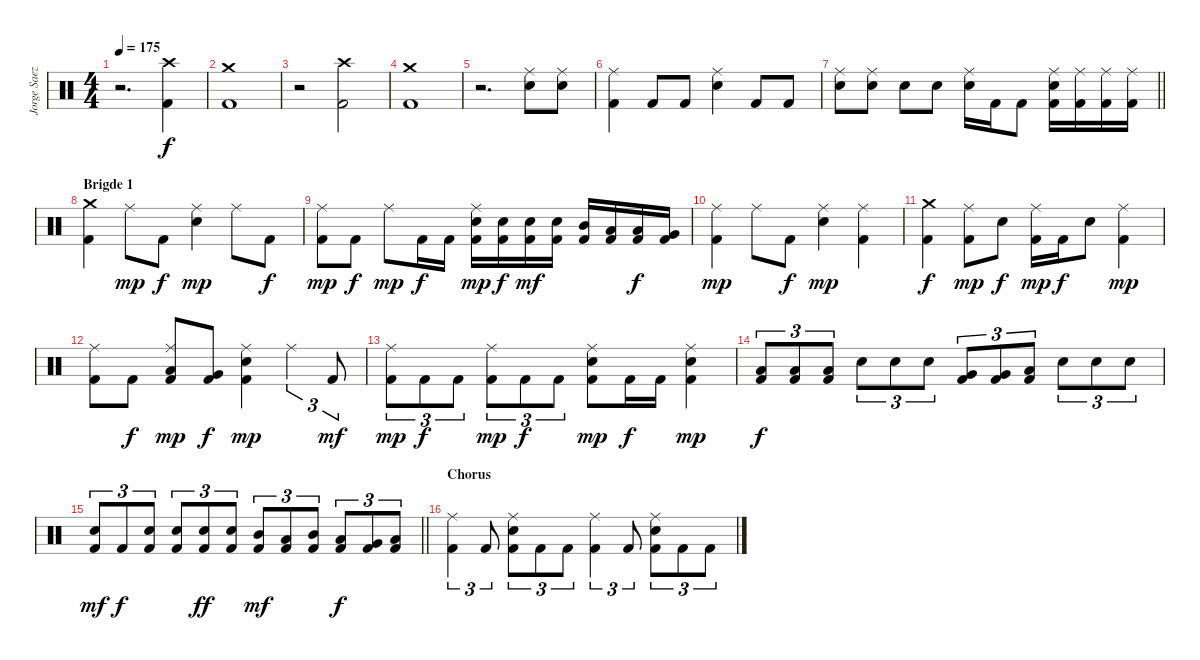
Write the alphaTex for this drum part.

\track ("Jorge Saez, Drums" "Jorge Saez") {instrument percussion}
\staff
\articulation defaults
\ts (4 4)
\tempo 175
\clef neutral
\ks c
r.2{d dy f} ("Kick (hit) 2" "Crash high (hit)").4 |
("Kick (hit) 2" "Crash medium (hit)").1 |
r.2 ("Kick (hit) 2" "Crash high (hit)").2 |
("Kick (hit) 2" "Crash medium (hit)").1 |
r.2{d} ("Electric Snare (hit)" "Ride (middle)").8 ("Electric Snare (hit)" "Ride (middle)").8 |
("Kick (hit) 2" "Ride (middle)").4 "Kick (hit) 2".8 "Kick (hit) 2".8 ("Electric Snare (hit)" "Ride (middle)").4 "Kick (hit) 2".8 "Kick (hit) 2".8 |
\barLineRight lightlight
("Electric Snare (hit)" "Ride (middle)").8 ("Electric Snare (hit)" "Ride (middle)").8 "Electric Snare (hit)".8 "Electric Snare (hit)".8 ("Electric Snare (hit)" "Ride (middle)").16 "Kick (hit) 2".16 "Kick (hit) 2".8 ("Kick (hit) 2" "Electric Snare (hit)" "Ride (middle)").16 ("Kick (hit) 2" "Ride (middle)").16 ("Kick (hit) 2" "Ride (middle)").16 ("Kick (hit) 2" "Ride (middle)").16 |
\section ("" "Brigde 1")
("Kick (hit) 2" "Crash medium (hit)").4 "Ride (middle)".8{dy mp} "Kick (hit) 2".8{dy f} ("Electric Snare (hit)" "Ride (middle)").4{dy mp} "Ride (middle)".8 "Kick (hit) 2".8{dy f} |
("Kick (hit) 2" "Ride (middle)").8{dy mp} "Kick (hit) 2".8{dy f} "Ride (middle)".8{dy mp} "Kick (hit) 2".16{dy f} "Kick (hit) 2".16 ("Kick (hit) 2" "Electric Snare (hit)" "Ride (middle)").16{dy mp} ("Kick (hit) 2" "Electric Snare (hit)").16{dy f} ("Kick (hit) 2" "Electric Snare (hit)").16{dy mf} ("Kick (hit) 2" "Electric Snare (hit)").16 ("Kick (hit) 2" "Mid Tom (hit)").16 ("Kick (hit) 2" "Low Tom (hit)").16 ("Kick (hit) 2" "Low Tom (hit)").16{dy f} ("Kick (hit) 2" "Very Low Tom (hit)").16 |
("Kick (hit) 2" "Ride (middle)").4{dy mp} "Ride (middle)".8 "Kick (hit) 2".8{dy f} ("Electric Snare (hit)" "Ride (middle)").4{dy mp} ("Kick (hit) 2" "Ride (middle)").4 |
("Kick (hit) 2" "Crash medium (hit)").4{dy f} ("Kick (hit) 2" "Ride (middle)").8{dy mp} "Electric Snare (hit)".8{dy f} ("Kick (hit) 2" "Ride (middle)").16{dy mp} "Kick (hit) 2".16{dy f} "Electric Snare (hit)".8 ("Kick (hit) 2" "Ride (middle)").4{dy mp} |
("Kick (hit) 2" "Ride (middle)").8 "Kick (hit) 2".8{dy f} ("Kick (hit) 2" "Low Tom (hit)" "Ride (middle)").8{dy mp} ("Kick (hit) 2" "Very Low Tom (hit)").8{dy f} ("Kick (hit) 2" "Electric Snare (hit)" "Ride (middle)").4{dy mp} "Ride (middle)".4{tu (3 2)} "Kick (hit) 2".8{tu (3 2) dy mf} |
("Kick (hit) 2" "Ride (middle)").8{tu (3 2) dy mp} "Kick (hit) 2".8{tu (3 2) dy f} "Kick (hit) 2".8{tu (3 2)} ("Kick (hit) 2" "Ride (middle)").8{tu (3 2) dy mp} "Kick (hit) 2".8{tu (3 2) dy f} "Kick (hit) 2".8{tu (3 2)} ("Kick (hit) 2" "Electric Snare (hit)" "Ride (middle)").8{dy mp} "Kick (hit) 2".16{dy f} "Kick (hit) 2".16 ("Kick (hit) 2" "Electric Snare (hit)" "Ride (middle)").4{dy mp} |
("Kick (hit) 2" "Low Tom (hit)").8{tu (3 2) dy f} ("Kick (hit) 2" "Low Tom (hit)").8{tu (3 2)} ("Kick (hit) 2" "Low Tom (hit)").8{tu (3 2)} "Electric Snare (hit)".8{tu (3 2)} "Electric Snare (hit)".8{tu (3 2)} "Electric Snare (hit)".8{tu (3 2)} ("Kick (hit) 2" "Very Low Tom (hit)").8{tu (3 2)} ("Kick (hit) 2" "Very Low Tom (hit)").8{tu (3 2)} ("Kick (hit) 2" "Low Tom (hit)").8{tu (3 2)} "Electric Snare (hit)".8{tu (3 2)} "Electric Snare (hit)".8{tu (3 2)} "Electric Snare (hit)".8{tu (3 2)} |
\barLineRight lightlight
("Kick (hit) 2" "Electric Snare (hit)").8{tu (3 2) dy mf} "Kick (hit) 2".8{tu (3 2) dy f} ("Kick (hit) 2" "Electric Snare (hit)").8{tu (3 2)} ("Kick (hit) 2" "Electric Snare (hit)").8{tu (3 2)} ("Kick (hit) 2" "Electric Snare (hit)").8{tu (3 2) dy ff} ("Kick (hit) 2" "Electric Snare (hit)").8{tu (3 2)} ("Kick (hit) 2" "Mid Tom (hit)").8{tu (3 2) dy mf} ("Kick (hit) 2" "Low Tom (hit)").8{tu (3 2)} ("Kick (hit) 2" "Mid Tom (hit)").8{tu (3 2)} ("Kick (hit) 2" "Low Tom (hit)").8{tu (3 2) dy f} ("Kick (hit) 2" "Very Low Tom (hit)").8{tu (3 2)} ("Kick (hit) 2" "Low Floor Tom (hit)").8{tu (3 2)} |
\section ("" "Chorus")
("Kick (hit) 2" "Ride (middle)").4{tu (3 2)} "Kick (hit) 2".8{tu (3 2)} ("Kick (hit) 2" "Electric Snare (hit)" "Ride (middle)").8{tu (3 2)} "Kick (hit) 2".8{tu (3 2)} "Kick (hit) 2".8{tu (3 2)} ("Kick (hit) 2" "Ride (middle)").4{tu (3 2)} "Kick (hit) 2".8{tu (3 2)} ("Kick (hit) 2" "Electric Snare (hit)" "Ride (middle)").8{tu (3 2)} "Kick (hit) 2".8{tu (3 2)} "Kick (hit) 2".8{tu (3 2)}
